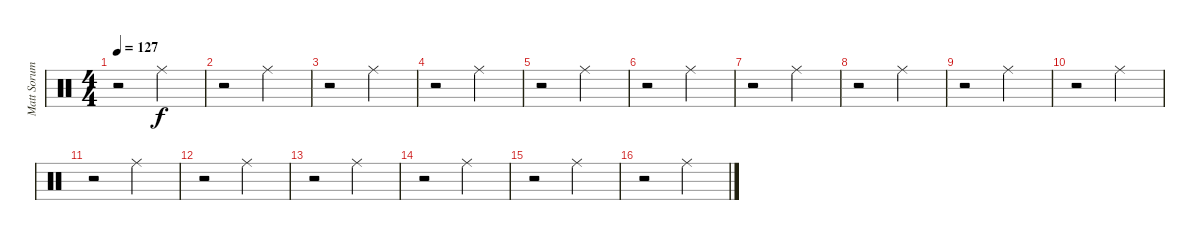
\track ("Matt Sorum" "Matt Sorum") {instrument percussion}
\staff {score}
\articulation defaults
\ts (4 4)
\tempo 127
\clef neutral
\ks c
r.2{dy f} "Ride (middle)".2 |
r.2 "Ride (middle)".2 |
r.2 "Ride (middle)".2 |
r.2 "Ride (middle)".2 |
r.2 "Ride (middle)".2 |
r.2 "Ride (middle)".2 |
r.2 "Ride (middle)".2 |
r.2 "Ride (middle)".2 |
r.2 "Ride (middle)".2 |
r.2 "Ride (middle)".2 |
r.2 "Ride (middle)".2 |
r.2 "Ride (middle)".2 |
r.2 "Ride (middle)".2 |
r.2 "Ride (middle)".2 |
r.2 "Ride (middle)".2 |
r.2 "Ride (middle)".2
